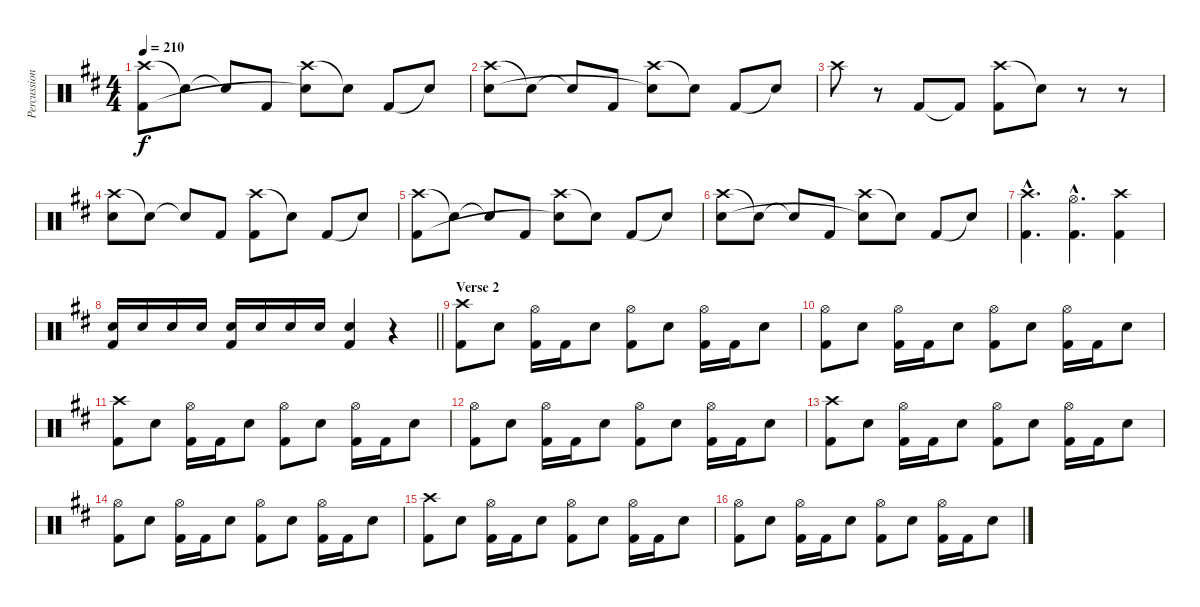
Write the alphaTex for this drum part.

\track ("Percussion" "Percussion") {instrument percussion}
\staff {score}
\articulation defaults
\ts (4 4)
\tempo 210
\clef neutral
\ks d
("Crash high (hit)" "Kick (hit) 2").8{dy f} "Snare (hit)"{t}.8 "Snare (hit)"{t}.8 "Kick (hit) 2".8 ("Crash high (hit)" "Snare (hit)"{t}).8 "Snare (hit)"{t}.8 "Kick (hit) 2".8 "Snare (hit)"{t}.8 |
("Crash high (hit)" "Electric Snare (hit)").8 "Snare (hit)"{t}.8 "Snare (hit)"{t}.8 "Kick (hit) 2".8 ("Crash high (hit)" "Snare (hit)"{t}).8 "Snare (hit)"{t}.8 "Kick (hit) 2".8 "Snare (hit)"{t}.8 |
"Crash high (hit)".8 r.8 "Kick (hit) 2".8 "Kick (hit) 2"{t}.8 ("Crash high (hit)" "Kick (hit) 2").8 "Snare (hit)"{t}.8 r.8 r.8 |
("Crash high (hit)" "Electric Snare (hit)").8 "Snare (hit)"{t}.8 "Snare (hit)"{t}.8 "Kick (hit) 2".8 ("Crash high (hit)" "Kick (hit) 2").8 "Snare (hit)"{t}.8 "Kick (hit) 2".8 "Snare (hit)"{t}.8 |
("Crash high (hit)" "Kick (hit) 2").8 "Snare (hit)"{t}.8 "Snare (hit)"{t}.8 "Kick (hit) 2".8 ("Crash high (hit)" "Snare (hit)"{t}).8 "Snare (hit)"{t}.8 "Kick (hit) 2".8 "Snare (hit)"{t}.8 |
("Crash high (hit)" "Electric Snare (hit)").8 "Snare (hit)"{t}.8 "Snare (hit)"{t}.8 "Kick (hit) 2".8 ("Crash high (hit)" "Snare (hit)"{t}).8 "Snare (hit)"{t}.8 "Kick (hit) 2".8 "Snare (hit)"{t}.8 |
("Crash high (hit)"{hac} "Kick (hit) 2"{hac}).4{d} ("Hi-Hat (open)"{hac} "Kick (hit) 2"{hac}).4{d} ("Crash high (hit)" "Kick (hit) 2").4 |
\barLineRight lightlight
("Electric Snare (hit)" "Kick (hit) 2").16 "Electric Snare (hit)".16 "Electric Snare (hit)".16 "Electric Snare (hit)".16 ("Electric Snare (hit)" "Kick (hit) 2").16 "Electric Snare (hit)".16 "Electric Snare (hit)".16 "Electric Snare (hit)".16 ("Electric Snare (hit)" "Kick (hit) 2").4 r.4 |
\section ("" "Verse 2")
("Crash high (hit)" "Kick (hit) 2").8 "Electric Snare (hit)".8 ("Hi-Hat (open)" "Kick (hit) 2").16 "Kick (hit) 2".16 "Electric Snare (hit)".8 ("Hi-Hat (open)" "Kick (hit) 2").8 "Electric Snare (hit)".8 ("Hi-Hat (open)" "Kick (hit) 2").16 "Kick (hit) 2".16 "Electric Snare (hit)".8 |
("Hi-Hat (open)" "Kick (hit) 2").8 "Electric Snare (hit)".8 ("Hi-Hat (open)" "Kick (hit) 2").16 "Kick (hit) 2".16 "Electric Snare (hit)".8 ("Hi-Hat (open)" "Kick (hit) 2").8 "Electric Snare (hit)".8 ("Hi-Hat (open)" "Kick (hit) 2").16 "Kick (hit) 2".16 "Electric Snare (hit)".8 |
("Crash high (hit)" "Kick (hit) 2").8 "Electric Snare (hit)".8 ("Hi-Hat (open)" "Kick (hit) 2").16 "Kick (hit) 2".16 "Electric Snare (hit)".8 ("Hi-Hat (open)" "Kick (hit) 2").8 "Electric Snare (hit)".8 ("Hi-Hat (open)" "Kick (hit) 2").16 "Kick (hit) 2".16 "Electric Snare (hit)".8 |
("Hi-Hat (open)" "Kick (hit) 2").8 "Electric Snare (hit)".8 ("Hi-Hat (open)" "Kick (hit) 2").16 "Kick (hit) 2".16 "Electric Snare (hit)".8 ("Hi-Hat (open)" "Kick (hit) 2").8 "Electric Snare (hit)".8 ("Hi-Hat (open)" "Kick (hit) 2").16 "Kick (hit) 2".16 "Electric Snare (hit)".8 |
("Crash high (hit)" "Kick (hit) 2").8 "Electric Snare (hit)".8 ("Hi-Hat (open)" "Kick (hit) 2").16 "Kick (hit) 2".16 "Electric Snare (hit)".8 ("Hi-Hat (open)" "Kick (hit) 2").8 "Electric Snare (hit)".8 ("Hi-Hat (open)" "Kick (hit) 2").16 "Kick (hit) 2".16 "Electric Snare (hit)".8 |
("Hi-Hat (open)" "Kick (hit) 2").8 "Electric Snare (hit)".8 ("Hi-Hat (open)" "Kick (hit) 2").16 "Kick (hit) 2".16 "Electric Snare (hit)".8 ("Hi-Hat (open)" "Kick (hit) 2").8 "Electric Snare (hit)".8 ("Hi-Hat (open)" "Kick (hit) 2").16 "Kick (hit) 2".16 "Electric Snare (hit)".8 |
("Crash high (hit)" "Kick (hit) 2").8 "Electric Snare (hit)".8 ("Hi-Hat (open)" "Kick (hit) 2").16 "Kick (hit) 2".16 "Electric Snare (hit)".8 ("Hi-Hat (open)" "Kick (hit) 2").8 "Electric Snare (hit)".8 ("Hi-Hat (open)" "Kick (hit) 2").16 "Kick (hit) 2".16 "Electric Snare (hit)".8 |
("Hi-Hat (open)" "Kick (hit) 2").8 "Electric Snare (hit)".8 ("Hi-Hat (open)" "Kick (hit) 2").16 "Kick (hit) 2".16 "Electric Snare (hit)".8 ("Hi-Hat (open)" "Kick (hit) 2").8 "Electric Snare (hit)".8 ("Hi-Hat (open)" "Kick (hit) 2").16 "Kick (hit) 2".16 "Electric Snare (hit)".8
